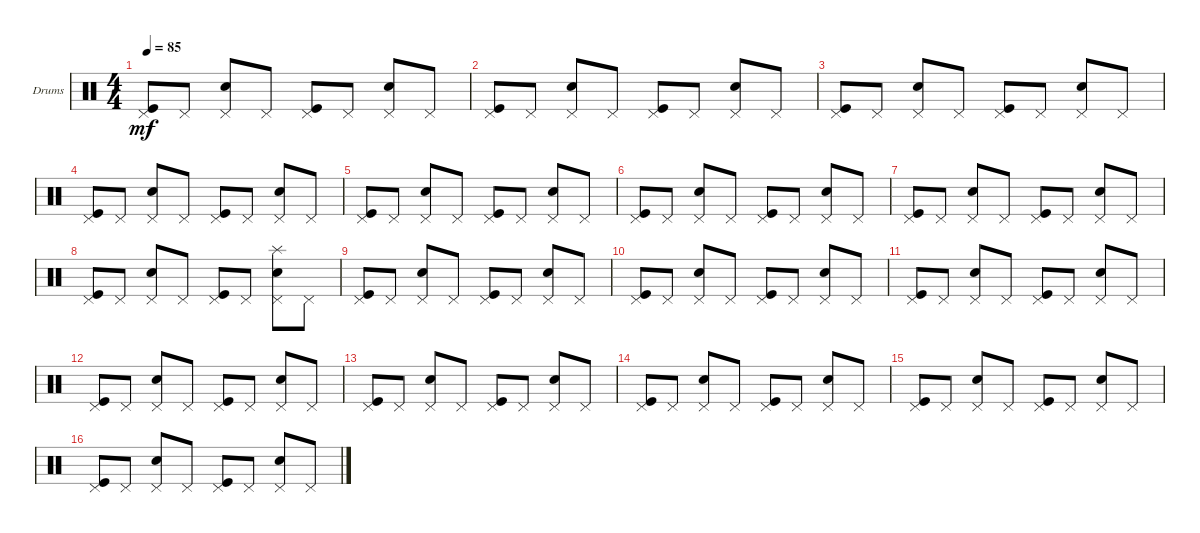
\defaultSystemsLayout 4
\bracketExtendMode groupsimilarinstruments
\firstSystemTrackNameOrientation horizontal
\otherSystemsTrackNameOrientation horizontal
\track ("Drumkit" "Drums") {instrument percussion}
\staff {score}
\articulation defaults
\ts (4 4)
\tempo 85
\clef neutral
\ks c
("Kick (hit)" "Pedal Hi-Hat (hit)").8{dy mf} "Pedal Hi-Hat (hit)".8 ("Snare (hit) 2" "Pedal Hi-Hat (hit)").8 "Pedal Hi-Hat (hit)".8 ("Kick (hit)" "Pedal Hi-Hat (hit)").8 "Pedal Hi-Hat (hit)".8 ("Snare (hit) 2" "Pedal Hi-Hat (hit)").8 "Pedal Hi-Hat (hit)".8 |
("Kick (hit)" "Pedal Hi-Hat (hit)").8 "Pedal Hi-Hat (hit)".8 ("Snare (hit) 2" "Pedal Hi-Hat (hit)").8 "Pedal Hi-Hat (hit)".8 ("Kick (hit)" "Pedal Hi-Hat (hit)").8 "Pedal Hi-Hat (hit)".8 ("Snare (hit) 2" "Pedal Hi-Hat (hit)").8 "Pedal Hi-Hat (hit)".8 |
("Kick (hit)" "Pedal Hi-Hat (hit)").8 "Pedal Hi-Hat (hit)".8 ("Snare (hit) 2" "Pedal Hi-Hat (hit)").8 "Pedal Hi-Hat (hit)".8 ("Kick (hit)" "Pedal Hi-Hat (hit)").8 "Pedal Hi-Hat (hit)".8 ("Snare (hit) 2" "Pedal Hi-Hat (hit)").8 "Pedal Hi-Hat (hit)".8 |
("Kick (hit)" "Pedal Hi-Hat (hit)").8 "Pedal Hi-Hat (hit)".8 ("Snare (hit) 2" "Pedal Hi-Hat (hit)").8 "Pedal Hi-Hat (hit)".8 ("Kick (hit)" "Pedal Hi-Hat (hit)").8 "Pedal Hi-Hat (hit)".8 ("Snare (hit) 2" "Pedal Hi-Hat (hit)").8 "Pedal Hi-Hat (hit)".8 |
("Kick (hit)" "Pedal Hi-Hat (hit)").8 "Pedal Hi-Hat (hit)".8 ("Snare (hit) 2" "Pedal Hi-Hat (hit)").8 "Pedal Hi-Hat (hit)".8 ("Kick (hit)" "Pedal Hi-Hat (hit)").8 "Pedal Hi-Hat (hit)".8 ("Snare (hit) 2" "Pedal Hi-Hat (hit)").8 "Pedal Hi-Hat (hit)".8 |
("Kick (hit)" "Pedal Hi-Hat (hit)").8 "Pedal Hi-Hat (hit)".8 ("Snare (hit) 2" "Pedal Hi-Hat (hit)").8 "Pedal Hi-Hat (hit)".8 ("Kick (hit)" "Pedal Hi-Hat (hit)").8 "Pedal Hi-Hat (hit)".8 ("Snare (hit) 2" "Pedal Hi-Hat (hit)").8 "Pedal Hi-Hat (hit)".8 |
("Kick (hit)" "Pedal Hi-Hat (hit)").8 "Pedal Hi-Hat (hit)".8 ("Snare (hit) 2" "Pedal Hi-Hat (hit)").8 "Pedal Hi-Hat (hit)".8 ("Kick (hit)" "Pedal Hi-Hat (hit)").8 "Pedal Hi-Hat (hit)".8 ("Snare (hit) 2" "Pedal Hi-Hat (hit)").8 "Pedal Hi-Hat (hit)".8 |
("Kick (hit)" "Pedal Hi-Hat (hit)").8 "Pedal Hi-Hat (hit)".8 ("Snare (hit) 2" "Pedal Hi-Hat (hit)").8 "Pedal Hi-Hat (hit)".8 ("Kick (hit)" "Pedal Hi-Hat (hit)").8 "Pedal Hi-Hat (hit)".8 ("Snare (hit) 2" "Pedal Hi-Hat (hit)" "Splash (hit)").8 "Pedal Hi-Hat (hit)".8 |
("Kick (hit)" "Pedal Hi-Hat (hit)").8 "Pedal Hi-Hat (hit)".8 ("Snare (hit) 2" "Pedal Hi-Hat (hit)").8 "Pedal Hi-Hat (hit)".8 ("Kick (hit)" "Pedal Hi-Hat (hit)").8 "Pedal Hi-Hat (hit)".8 ("Snare (hit) 2" "Pedal Hi-Hat (hit)").8 "Pedal Hi-Hat (hit)".8 |
("Kick (hit)" "Pedal Hi-Hat (hit)").8 "Pedal Hi-Hat (hit)".8 ("Snare (hit) 2" "Pedal Hi-Hat (hit)").8 "Pedal Hi-Hat (hit)".8 ("Kick (hit)" "Pedal Hi-Hat (hit)").8 "Pedal Hi-Hat (hit)".8 ("Snare (hit) 2" "Pedal Hi-Hat (hit)").8 "Pedal Hi-Hat (hit)".8 |
("Kick (hit)" "Pedal Hi-Hat (hit)").8 "Pedal Hi-Hat (hit)".8 ("Snare (hit) 2" "Pedal Hi-Hat (hit)").8 "Pedal Hi-Hat (hit)".8 ("Kick (hit)" "Pedal Hi-Hat (hit)").8 "Pedal Hi-Hat (hit)".8 ("Snare (hit) 2" "Pedal Hi-Hat (hit)").8 "Pedal Hi-Hat (hit)".8 |
("Kick (hit)" "Pedal Hi-Hat (hit)").8 "Pedal Hi-Hat (hit)".8 ("Snare (hit) 2" "Pedal Hi-Hat (hit)").8 "Pedal Hi-Hat (hit)".8 ("Kick (hit)" "Pedal Hi-Hat (hit)").8 "Pedal Hi-Hat (hit)".8 ("Snare (hit) 2" "Pedal Hi-Hat (hit)").8 "Pedal Hi-Hat (hit)".8 |
("Kick (hit)" "Pedal Hi-Hat (hit)").8 "Pedal Hi-Hat (hit)".8 ("Snare (hit) 2" "Pedal Hi-Hat (hit)").8 "Pedal Hi-Hat (hit)".8 ("Kick (hit)" "Pedal Hi-Hat (hit)").8 "Pedal Hi-Hat (hit)".8 ("Snare (hit) 2" "Pedal Hi-Hat (hit)").8 "Pedal Hi-Hat (hit)".8 |
("Kick (hit)" "Pedal Hi-Hat (hit)").8 "Pedal Hi-Hat (hit)".8 ("Snare (hit) 2" "Pedal Hi-Hat (hit)").8 "Pedal Hi-Hat (hit)".8 ("Kick (hit)" "Pedal Hi-Hat (hit)").8 "Pedal Hi-Hat (hit)".8 ("Snare (hit) 2" "Pedal Hi-Hat (hit)").8 "Pedal Hi-Hat (hit)".8 |
("Kick (hit)" "Pedal Hi-Hat (hit)").8 "Pedal Hi-Hat (hit)".8 ("Snare (hit) 2" "Pedal Hi-Hat (hit)").8 "Pedal Hi-Hat (hit)".8 ("Kick (hit)" "Pedal Hi-Hat (hit)").8 "Pedal Hi-Hat (hit)".8 ("Snare (hit) 2" "Pedal Hi-Hat (hit)").8 "Pedal Hi-Hat (hit)".8 |
("Kick (hit)" "Pedal Hi-Hat (hit)").8 "Pedal Hi-Hat (hit)".8 ("Snare (hit) 2" "Pedal Hi-Hat (hit)").8 "Pedal Hi-Hat (hit)".8 ("Kick (hit)" "Pedal Hi-Hat (hit)").8 "Pedal Hi-Hat (hit)".8 ("Snare (hit) 2" "Pedal Hi-Hat (hit)").8 "Pedal Hi-Hat (hit)".8
